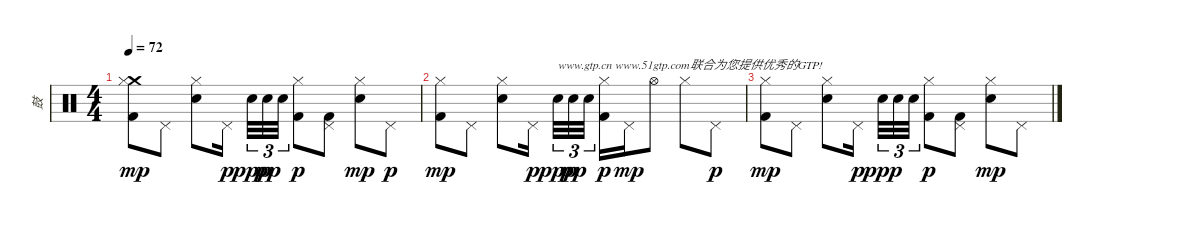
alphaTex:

\track ("鼓" "鼓") {instrument percussion}
\staff {score}
\articulation defaults
\ts (4 4)
\tempo 72
\clef neutral
\ks c
("Crash medium (hit)" "Hi-Hat (closed)" "Kick (hit) 2").8{dy mp} "Pedal Hi-Hat (hit)".8 ("Hi-Hat (closed)" "Electric Snare (hit)").8 "Pedal Hi-Hat (hit)".16{dy p beam splitsecondary} "Electric Snare (hit)".32{tu (3 2) dy ppp} "Electric Snare (hit)".32{tu (3 2) dy pp} "Electric Snare (hit)".32{tu (3 2)} ("Hi-Hat (closed)" "Kick (hit) 2").8{dy p} ("Pedal Hi-Hat (hit)" "Kick (hit) 2").8 ("Hi-Hat (closed)" "Electric Snare (hit)").8{dy mp} "Pedal Hi-Hat (hit)".8{dy p} |
("Hi-Hat (closed)" "Kick (hit) 2").8{dy mp} "Pedal Hi-Hat (hit)".8 ("Hi-Hat (closed)" "Electric Snare (hit)").8 "Pedal Hi-Hat (hit)".16{dy p beam splitsecondary} "Electric Snare (hit)".32{tu (3 2) txt "www.gtp.cn www.51gtp.com联合为您提供优秀的GTP!" dy ppp} "Electric Snare (hit)".32{tu (3 2) dy pp} "Electric Snare (hit)".32{tu (3 2)} ("Hi-Hat (closed)" "Kick (hit) 2").16{dy p} "Pedal Hi-Hat (hit)".16{dy mp} "Hi-Hat (open)".8 "Hi-Hat (closed)".8 "Pedal Hi-Hat (hit)".8{dy p} |
("Hi-Hat (closed)" "Kick (hit) 2").8{dy mp} "Pedal Hi-Hat (hit)".8 ("Hi-Hat (closed)" "Electric Snare (hit)").8 "Pedal Hi-Hat (hit)".16{dy p beam splitsecondary} "Electric Snare (hit)".32{tu (3 2) dy ppp} "Electric Snare (hit)".32{tu (3 2)} "Electric Snare (hit)".32{tu (3 2)} ("Hi-Hat (closed)" "Kick (hit) 2").8{dy p} ("Pedal Hi-Hat (hit)" "Kick (hit) 2").8 ("Hi-Hat (closed)" "Electric Snare (hit)").8{dy mp} "Pedal Hi-Hat (hit)".8
